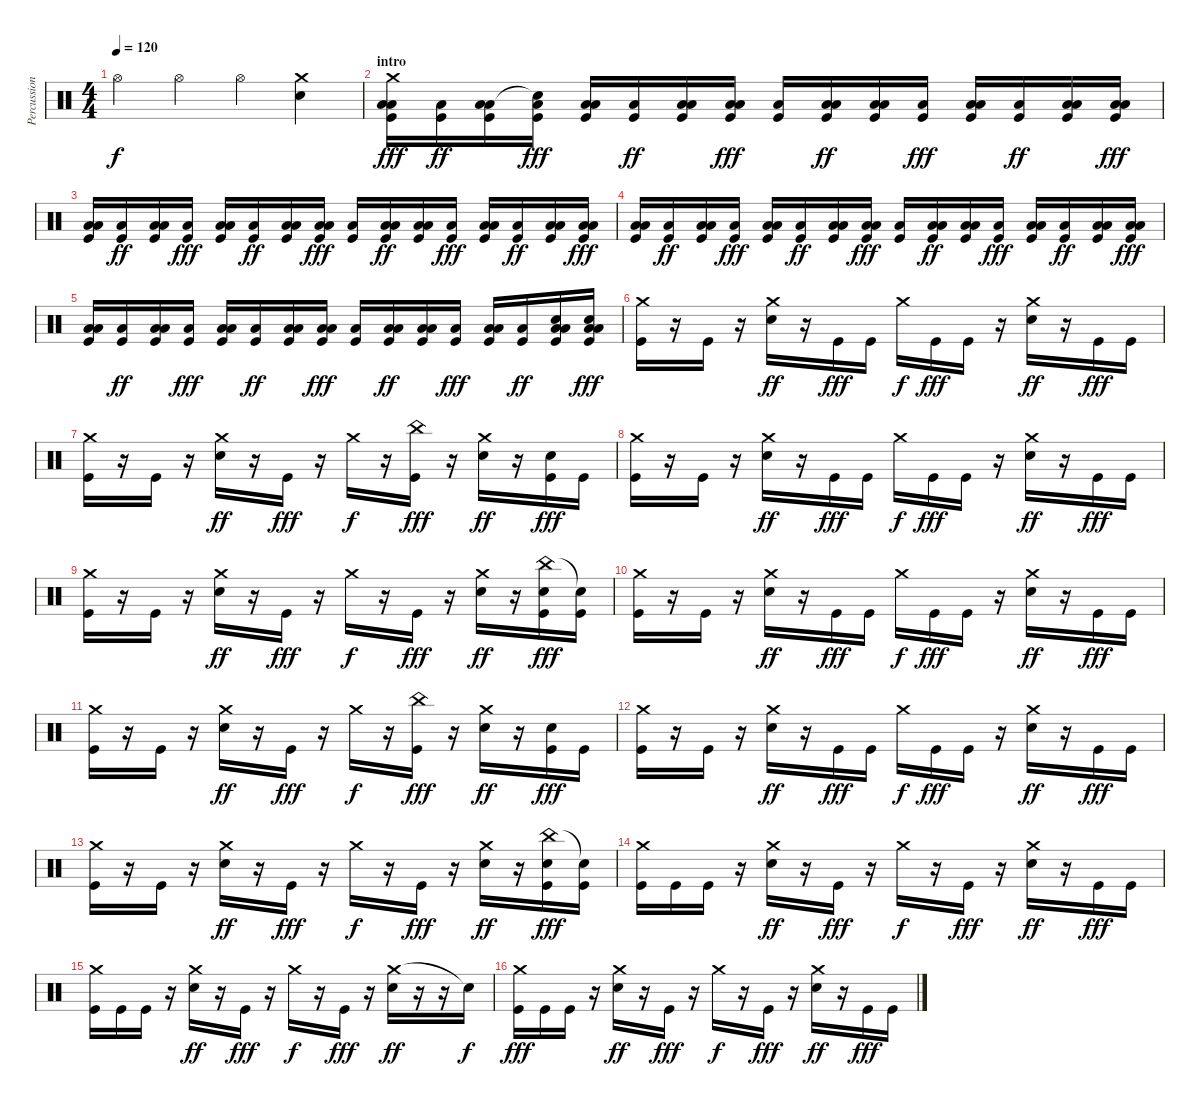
\track ("Percussions" "Percussion") {instrument percussion}
\staff {score}
\articulation defaults
\ts (4 4)
\tempo 120
\clef neutral
\ks c "Hi-Hat (open)".4{dy f} "Hi-Hat (open)".4 "Hi-Hat (open)".4
("Electric Snare (hit)" "Crash medium (hit)").4 |
\section ("" "intro")
("Crash medium (hit)" "Low Floor Tom (hit)" "Low Tom (hit)" "Kick (hit)").16{dy fff} ("Low Floor Tom (hit)" "Kick (hit)").16{dy ff} ("Low Floor Tom (hit)" "Low Floor Tom (hit)" "Kick (hit)").16 ("Snare (hit)"{t} "Low Floor Tom (hit)" "Kick (hit)").16{dy fff} ("Low Floor Tom (hit)" "Low Floor Tom (hit)" "Kick (hit)").16 ("Low Floor Tom (hit)" "Kick (hit)").16{dy ff} ("Low Floor Tom (hit)" "Low Floor Tom (hit)" "Kick (hit)").16 ("Low Floor Tom (hit)" "Low Floor Tom (hit)" "Kick (hit)").16{dy fff} ("Low Floor Tom (hit)" "Kick (hit)").16 ("Low Floor Tom (hit)" "Low Floor Tom (hit)" "Kick (hit)").16{dy ff} ("Low Floor Tom (hit)" "Low Floor Tom (hit)" "Kick (hit)").16 ("Low Floor Tom (hit)" "Kick (hit)").16{dy fff} ("Low Floor Tom (hit)" "Low Floor Tom (hit)" "Kick (hit)").16 ("Low Floor Tom (hit)" "Kick (hit)").16{dy ff} ("Low Floor Tom (hit)" "Low Floor Tom (hit)" "Kick (hit)").16 ("Low Floor Tom (hit)" "Low Floor Tom (hit)" "Kick (hit)").16{dy fff} |
("Low Floor Tom (hit)" "Low Tom (hit)" "Kick (hit)").16 ("Low Floor Tom (hit)" "Kick (hit)").16{dy ff} ("Low Floor Tom (hit)" "Low Floor Tom (hit)" "Kick (hit)").16 ("Low Floor Tom (hit)" "Kick (hit)").16{dy fff} ("Low Floor Tom (hit)" "Low Floor Tom (hit)" "Kick (hit)").16 ("Low Floor Tom (hit)" "Kick (hit)").16{dy ff} ("Low Floor Tom (hit)" "Low Floor Tom (hit)" "Kick (hit)").16 ("Low Floor Tom (hit)" "Low Floor Tom (hit)" "Kick (hit)").16{dy fff} ("Low Floor Tom (hit)" "Kick (hit)").16 ("Low Floor Tom (hit)" "Low Floor Tom (hit)" "Kick (hit)").16{dy ff} ("Low Floor Tom (hit)" "Low Floor Tom (hit)" "Kick (hit)").16 ("Low Floor Tom (hit)" "Kick (hit)").16{dy fff} ("Low Floor Tom (hit)" "Low Floor Tom (hit)" "Kick (hit)").16 ("Low Floor Tom (hit)" "Kick (hit)").16{dy ff} ("Low Floor Tom (hit)" "Low Floor Tom (hit)" "Kick (hit)").16 ("Low Floor Tom (hit)" "Low Floor Tom (hit)" "Kick (hit)").16{dy fff} |
("Low Floor Tom (hit)" "Low Tom (hit)" "Kick (hit)").16 ("Low Floor Tom (hit)" "Kick (hit)").16{dy ff} ("Low Floor Tom (hit)" "Low Floor Tom (hit)" "Kick (hit)").16 ("Low Floor Tom (hit)" "Kick (hit)").16{dy fff} ("Low Floor Tom (hit)" "Low Floor Tom (hit)" "Kick (hit)").16 ("Low Floor Tom (hit)" "Kick (hit)").16{dy ff} ("Low Floor Tom (hit)" "Low Floor Tom (hit)" "Kick (hit)").16 ("Low Floor Tom (hit)" "Low Floor Tom (hit)" "Kick (hit)").16{dy fff} ("Low Floor Tom (hit)" "Kick (hit)").16 ("Low Floor Tom (hit)" "Low Floor Tom (hit)" "Kick (hit)").16{dy ff} ("Low Floor Tom (hit)" "Low Floor Tom (hit)" "Kick (hit)").16 ("Low Floor Tom (hit)" "Kick (hit)").16{dy fff} ("Low Floor Tom (hit)" "Low Floor Tom (hit)" "Kick (hit)").16 ("Low Floor Tom (hit)" "Kick (hit)").16{dy ff} ("Low Floor Tom (hit)" "Low Floor Tom (hit)" "Kick (hit)").16 ("Low Floor Tom (hit)" "Low Floor Tom (hit)" "Kick (hit)").16{dy fff} |
("Low Floor Tom (hit)" "Low Tom (hit)" "Kick (hit)").16 ("Low Floor Tom (hit)" "Kick (hit)").16{dy ff} ("Low Floor Tom (hit)" "Low Floor Tom (hit)" "Kick (hit)").16 ("Low Floor Tom (hit)" "Kick (hit)").16{dy fff} ("Low Floor Tom (hit)" "Low Floor Tom (hit)" "Kick (hit)").16 ("Low Floor Tom (hit)" "Kick (hit)").16{dy ff} ("Low Floor Tom (hit)" "Low Floor Tom (hit)" "Kick (hit)").16 ("Low Floor Tom (hit)" "Low Floor Tom (hit)" "Kick (hit)").16{dy fff} ("Low Floor Tom (hit)" "Kick (hit)").16 ("Low Floor Tom (hit)" "Low Floor Tom (hit)" "Kick (hit)").16{dy ff} ("Low Floor Tom (hit)" "Low Floor Tom (hit)" "Kick (hit)").16 ("Low Floor Tom (hit)" "Kick (hit)").16{dy fff} ("Low Floor Tom (hit)" "Low Floor Tom (hit)" "Kick (hit)").16 ("Low Floor Tom (hit)" "Kick (hit)").16{dy ff} ("Snare (hit) 2" "Low Floor Tom (hit)" "Low Floor Tom (hit)" "Kick (hit)").16 ("Snare (hit) 2" "Low Floor Tom (hit)" "Low Floor Tom (hit)" "Kick (hit)").16{dy fff} |
("Crash medium (hit)" "Kick (hit)").16 r.16 "Kick (hit)".16 r.16 ("Crash medium (hit)" "Electric Snare (hit)").16{dy ff} r.16 "Kick (hit)".16{dy fff} "Kick (hit)".16 "Crash medium (hit)".16{dy f} "Kick (hit)".16{dy fff} "Kick (hit)".16 r.16 ("Crash medium (hit)" "Electric Snare (hit)").16{dy ff} r.16 "Kick (hit)".16{dy fff} "Kick (hit)".16 |
("Crash medium (hit)" "Kick (hit)").16 r.16 "Kick (hit)".16 r.16 ("Crash medium (hit)" "Electric Snare (hit)").16{dy ff} r.16 "Kick (hit)".16{dy fff} r.16 "Crash medium (hit)".16{dy f} r.16 ("China (hit)" "Kick (hit)").16{dy fff} r.16 ("Crash medium (hit)" "Electric Snare (hit)").16{dy ff} r.16 ("Electric Snare (hit)" "Kick (hit)").16{dy fff} "Kick (hit)".16 |
("Crash medium (hit)" "Kick (hit)").16 r.16 "Kick (hit)".16 r.16 ("Crash medium (hit)" "Electric Snare (hit)").16{dy ff} r.16 "Kick (hit)".16{dy fff} "Kick (hit)".16 "Crash medium (hit)".16{dy f} "Kick (hit)".16{dy fff} "Kick (hit)".16 r.16 ("Crash medium (hit)" "Electric Snare (hit)").16{dy ff} r.16 "Kick (hit)".16{dy fff} "Kick (hit)".16 |
("Crash medium (hit)" "Kick (hit)").16 r.16 "Kick (hit)".16 r.16 ("Crash medium (hit)" "Electric Snare (hit)").16{dy ff} r.16 "Kick (hit)".16{dy fff} r.16 "Crash medium (hit)".16{dy f} r.16 "Kick (hit)".16{dy fff} r.16 ("Crash medium (hit)" "Electric Snare (hit)").16{dy ff} r.16 ("China (hit)" "Electric Snare (hit)" "Kick (hit)").16{dy fff} ("Snare (hit)"{t} "Kick (hit)").16 |
("Crash medium (hit)" "Kick (hit)").16 r.16 "Kick (hit)".16 r.16 ("Crash medium (hit)" "Electric Snare (hit)").16{dy ff} r.16 "Kick (hit)".16{dy fff} "Kick (hit)".16 "Crash medium (hit)".16{dy f} "Kick (hit)".16{dy fff} "Kick (hit)".16 r.16 ("Crash medium (hit)" "Electric Snare (hit)").16{dy ff} r.16 "Kick (hit)".16{dy fff} "Kick (hit)".16 |
("Crash medium (hit)" "Kick (hit)").16 r.16 "Kick (hit)".16 r.16 ("Crash medium (hit)" "Electric Snare (hit)").16{dy ff} r.16 "Kick (hit)".16{dy fff} r.16 "Crash medium (hit)".16{dy f} r.16 ("China (hit)" "Kick (hit)").16{dy fff} r.16 ("Crash medium (hit)" "Electric Snare (hit)").16{dy ff} r.16 ("Electric Snare (hit)" "Kick (hit)").16{dy fff} "Kick (hit)".16 |
("Crash medium (hit)" "Kick (hit)").16 r.16 "Kick (hit)".16 r.16 ("Crash medium (hit)" "Electric Snare (hit)").16{dy ff} r.16 "Kick (hit)".16{dy fff} "Kick (hit)".16 "Crash medium (hit)".16{dy f} "Kick (hit)".16{dy fff} "Kick (hit)".16 r.16 ("Crash medium (hit)" "Electric Snare (hit)").16{dy ff} r.16 "Kick (hit)".16{dy fff} "Kick (hit)".16 |
("Crash medium (hit)" "Kick (hit)").16 r.16 "Kick (hit)".16 r.16 ("Crash medium (hit)" "Electric Snare (hit)").16{dy ff} r.16 "Kick (hit)".16{dy fff} r.16 "Crash medium (hit)".16{dy f} r.16 "Kick (hit)".16{dy fff} r.16 ("Crash medium (hit)" "Electric Snare (hit)").16{dy ff} r.16 ("China (hit)" "Electric Snare (hit)" "Kick (hit)").16{dy fff} ("Snare (hit)"{t} "Kick (hit)").16 |
("Crash medium (hit)" "Kick (hit)").16 "Kick (hit)".16 "Kick (hit)".16 r.16 ("Crash medium (hit)" "Electric Snare (hit)").16{dy ff} r.16 "Kick (hit)".16{dy fff} r.16 "Crash medium (hit)".16{dy f} r.16 "Kick (hit)".16{dy fff} r.16 ("Crash medium (hit)" "Electric Snare (hit)").16{dy ff} r.16 "Kick (hit)".16{dy fff} "Kick (hit)".16 |
("Crash medium (hit)" "Kick (hit)").16 "Kick (hit)".16 "Kick (hit)".16 r.16 ("Crash medium (hit)" "Electric Snare (hit)").16{dy ff} r.16 "Kick (hit)".16{dy fff} r.16 "Crash medium (hit)".16{dy f} r.16 "Kick (hit)".16{dy fff} r.16 ("Crash medium (hit)" "Electric Snare (hit)").16{dy ff} r.16 r.16 "Snare (hit)"{t}.16{dy f} |
("Crash medium (hit)" "Kick (hit)").16{dy fff} "Kick (hit)".16 "Kick (hit)".16 r.16 ("Crash medium (hit)" "Electric Snare (hit)").16{dy ff} r.16 "Kick (hit)".16{dy fff} r.16 "Crash medium (hit)".16{dy f} r.16 "Kick (hit)".16{dy fff} r.16 ("Crash medium (hit)" "Electric Snare (hit)").16{dy ff} r.16 "Kick (hit)".16{dy fff} "Kick (hit)".16
